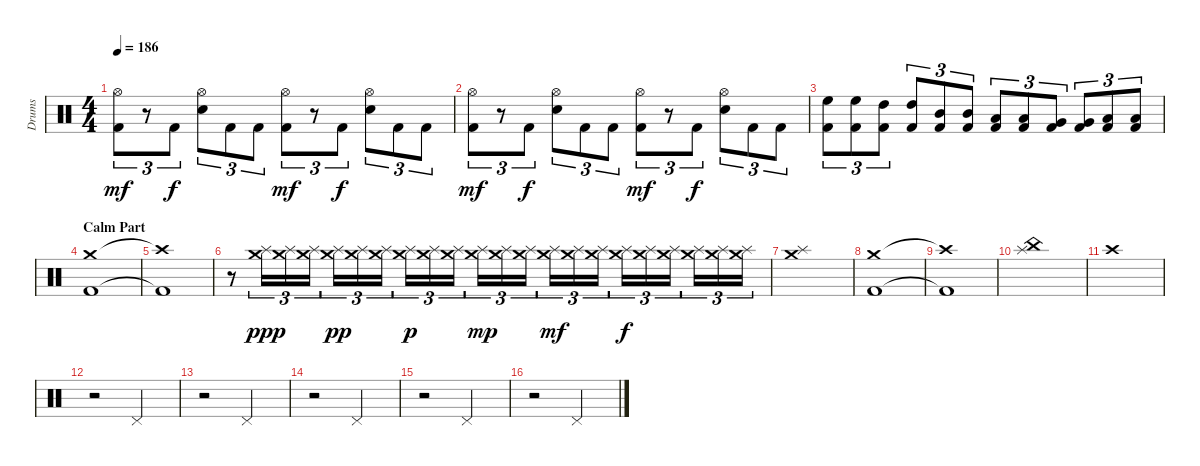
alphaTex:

\track ("Drums" "Drums") {instrument percussion}
\staff {score}
\articulation defaults
\ts (4 4)
\tempo 186
\clef neutral
\ks c
("Kick (hit) 2" "Hi-Hat (open)").8{tu (3 2) dy mf} r.8{tu (3 2)} "Kick (hit) 2".8{tu (3 2) dy f} ("Snare (hit) 2" "Hi-Hat (open)").8{tu (3 2)} "Kick (hit) 2".8{tu (3 2)} "Kick (hit) 2".8{tu (3 2)} ("Kick (hit) 2" "Hi-Hat (open)").8{tu (3 2) dy mf} r.8{tu (3 2)} "Kick (hit) 2".8{tu (3 2) dy f} ("Snare (hit) 2" "Hi-Hat (open)").8{tu (3 2)} "Kick (hit) 2".8{tu (3 2)} "Kick (hit) 2".8{tu (3 2)} |
("Kick (hit) 2" "Hi-Hat (open)").8{tu (3 2) dy mf} r.8{tu (3 2)} "Kick (hit) 2".8{tu (3 2) dy f} ("Snare (hit) 2" "Hi-Hat (open)").8{tu (3 2)} "Kick (hit) 2".8{tu (3 2)} "Kick (hit) 2".8{tu (3 2)} ("Kick (hit) 2" "Hi-Hat (open)").8{tu (3 2) dy mf} r.8{tu (3 2)} "Kick (hit) 2".8{tu (3 2) dy f} ("Snare (hit) 2" "Hi-Hat (open)").8{tu (3 2)} "Kick (hit) 2".8{tu (3 2)} "Kick (hit) 2".8{tu (3 2)} |
("Kick (hit) 2" "High Floor Tom (hit)").8{tu (3 2)} ("Kick (hit) 2" "High Floor Tom (hit)").8{tu (3 2)} ("Kick (hit) 2" "High Tom (hit)").8{tu (3 2)} ("Kick (hit) 2" "High Tom (hit)").8{tu (3 2)} ("Kick (hit) 2" "Mid Tom (hit)").8{tu (3 2)} ("Kick (hit) 2" "Mid Tom (hit)").8{tu (3 2)} ("Kick (hit) 2" "Low Tom (hit)").8{tu (3 2)} ("Kick (hit) 2" "Low Tom (hit)").8{tu (3 2)} ("Kick (hit) 2" "Very Low Tom (hit)").8{tu (3 2)} ("Kick (hit) 2" "Very Low Tom (hit)").8{tu (3 2)} ("Kick (hit) 2" "Low Floor Tom (hit)").8{tu (3 2)} ("Kick (hit) 2" "Low Floor Tom (hit)").8{tu (3 2)} |
\section ("" "Calm Part")
("Kick (hit) 2" "Crash medium (hit)").1 |
("Kick (hit) 2"{t} "Crash high (hit)"{t}).1 |
r.8 ("Crash medium (hit)" "Splash (hit)").16{tu (3 2) dy ppp} ("Crash medium (hit)" "Splash (hit)").16{tu (3 2)} ("Crash medium (hit)" "Splash (hit)").16{tu (3 2)} ("Crash medium (hit)" "Splash (hit)").16{tu (3 2) dy pp} ("Crash medium (hit)" "Splash (hit)").16{tu (3 2)} ("Crash medium (hit)" "Splash (hit)").16{tu (3 2)} ("Crash medium (hit)" "Splash (hit)").16{tu (3 2) dy p} ("Crash medium (hit)" "Splash (hit)").16{tu (3 2)} ("Crash medium (hit)" "Splash (hit)").16{tu (3 2)} ("Crash medium (hit)" "Splash (hit)").16{tu (3 2) dy mp} ("Crash medium (hit)" "Splash (hit)").16{tu (3 2)} ("Crash medium (hit)" "Splash (hit)").16{tu (3 2)} ("Crash medium (hit)" "Splash (hit)").16{tu (3 2) dy mf} ("Crash medium (hit)" "Splash (hit)").16{tu (3 2)} ("Crash medium (hit)" "Splash (hit)").16{tu (3 2)} ("Crash medium (hit)" "Splash (hit)").16{tu (3 2) dy f} ("Crash medium (hit)" "Splash (hit)").16{tu (3 2)} ("Crash medium (hit)" "Splash (hit)").16{tu (3 2)} ("Crash medium (hit)" "Splash (hit)").16{tu (3 2)} ("Crash medium (hit)" "Splash (hit)").16{tu (3 2)} ("Crash medium (hit)" "Splash (hit)").16{tu (3 2)} |
("Crash medium (hit)" "Splash (hit)").1 |
("Kick (hit) 2" "Crash medium (hit)").1 |
("Kick (hit) 2"{t} "Crash high (hit)"{t}).1 |
("Splash (hit)" "China (hit)").1 |
"Crash high (hit)".1 |
\section ("" "")
r.2 "Pedal Hi-Hat (hit)".2 |
r.2 "Pedal Hi-Hat (hit)".2 |
r.2 "Pedal Hi-Hat (hit)".2 |
r.2 "Pedal Hi-Hat (hit)".2 |
r.2 "Pedal Hi-Hat (hit)".2
